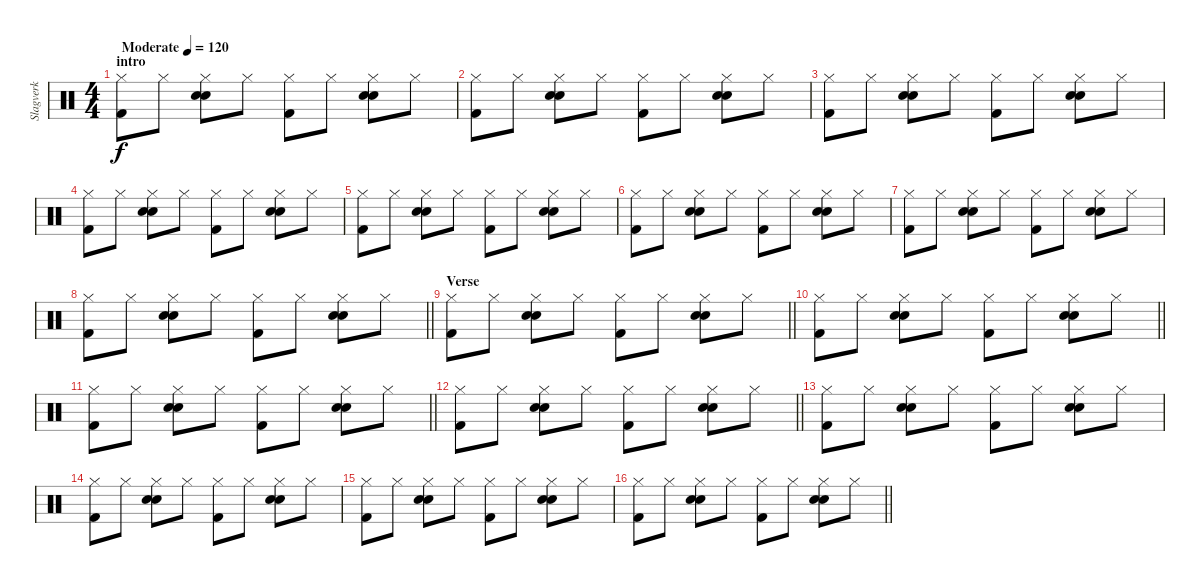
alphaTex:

\track ("Slagverk" "Slagverk") {instrument percussion}
\staff {score}
\articulation defaults
\ts (4 4)
\section ("" "intro")
\tempo (120 "Moderate")
\clef neutral
\ks c
("Hi-Hat (closed)" "Kick (hit) 2").8{dy f} "Hi-Hat (closed)".8 ("Hi-Hat (closed)" "Hand Clap (hit)" "Snare (hit) 2").8 "Hi-Hat (closed)".8 ("Hi-Hat (closed)" "Kick (hit) 2").8 "Hi-Hat (closed)".8 ("Hi-Hat (closed)" "Hand Clap (hit)" "Snare (hit) 2").8 "Hi-Hat (closed)".8 |
("Hi-Hat (closed)" "Kick (hit) 2").8 "Hi-Hat (closed)".8 ("Hi-Hat (closed)" "Hand Clap (hit)" "Snare (hit) 2").8 "Hi-Hat (closed)".8 ("Hi-Hat (closed)" "Kick (hit) 2").8 "Hi-Hat (closed)".8 ("Hi-Hat (closed)" "Hand Clap (hit)" "Snare (hit) 2").8 "Hi-Hat (closed)".8 |
("Hi-Hat (closed)" "Kick (hit) 2").8 "Hi-Hat (closed)".8 ("Hi-Hat (closed)" "Hand Clap (hit)" "Snare (hit) 2").8 "Hi-Hat (closed)".8 ("Hi-Hat (closed)" "Kick (hit) 2").8 "Hi-Hat (closed)".8 ("Hi-Hat (closed)" "Hand Clap (hit)" "Snare (hit) 2").8 "Hi-Hat (closed)".8 |
("Hi-Hat (closed)" "Kick (hit) 2").8 "Hi-Hat (closed)".8 ("Hi-Hat (closed)" "Hand Clap (hit)" "Snare (hit) 2").8 "Hi-Hat (closed)".8 ("Hi-Hat (closed)" "Kick (hit) 2").8 "Hi-Hat (closed)".8 ("Hi-Hat (closed)" "Hand Clap (hit)" "Snare (hit) 2").8 "Hi-Hat (closed)".8 |
("Hi-Hat (closed)" "Kick (hit) 2").8 "Hi-Hat (closed)".8 ("Hi-Hat (closed)" "Hand Clap (hit)" "Snare (hit) 2").8 "Hi-Hat (closed)".8 ("Hi-Hat (closed)" "Kick (hit) 2").8 "Hi-Hat (closed)".8 ("Hi-Hat (closed)" "Hand Clap (hit)" "Snare (hit) 2").8 "Hi-Hat (closed)".8 |
("Hi-Hat (closed)" "Kick (hit) 2").8 "Hi-Hat (closed)".8 ("Hi-Hat (closed)" "Hand Clap (hit)" "Snare (hit) 2").8 "Hi-Hat (closed)".8 ("Hi-Hat (closed)" "Kick (hit) 2").8 "Hi-Hat (closed)".8 ("Hi-Hat (closed)" "Hand Clap (hit)" "Snare (hit) 2").8 "Hi-Hat (closed)".8 |
("Hi-Hat (closed)" "Kick (hit) 2").8 "Hi-Hat (closed)".8 ("Hi-Hat (closed)" "Hand Clap (hit)" "Snare (hit) 2").8 "Hi-Hat (closed)".8 ("Hi-Hat (closed)" "Kick (hit) 2").8 "Hi-Hat (closed)".8 ("Hi-Hat (closed)" "Hand Clap (hit)" "Snare (hit) 2").8 "Hi-Hat (closed)".8 |
\barLineRight lightlight
("Hi-Hat (closed)" "Kick (hit) 2").8 "Hi-Hat (closed)".8 ("Hi-Hat (closed)" "Hand Clap (hit)" "Snare (hit) 2").8 "Hi-Hat (closed)".8 ("Hi-Hat (closed)" "Kick (hit) 2").8 "Hi-Hat (closed)".8 ("Hi-Hat (closed)" "Hand Clap (hit)" "Snare (hit) 2").8 "Hi-Hat (closed)".8 |
\section ("" "Verse")
\barLineRight lightlight
("Hi-Hat (closed)" "Kick (hit) 2").8 "Hi-Hat (closed)".8 ("Hi-Hat (closed)" "Hand Clap (hit)" "Snare (hit) 2").8 "Hi-Hat (closed)".8 ("Hi-Hat (closed)" "Kick (hit) 2").8 "Hi-Hat (closed)".8 ("Hi-Hat (closed)" "Hand Clap (hit)" "Snare (hit) 2").8 "Hi-Hat (closed)".8 |
\barLineRight lightlight
("Hi-Hat (closed)" "Kick (hit) 2").8 "Hi-Hat (closed)".8 ("Hi-Hat (closed)" "Hand Clap (hit)" "Snare (hit) 2").8 "Hi-Hat (closed)".8 ("Hi-Hat (closed)" "Kick (hit) 2").8 "Hi-Hat (closed)".8 ("Hi-Hat (closed)" "Hand Clap (hit)" "Snare (hit) 2").8 "Hi-Hat (closed)".8 |
\barLineRight lightlight
("Hi-Hat (closed)" "Kick (hit) 2").8 "Hi-Hat (closed)".8 ("Hi-Hat (closed)" "Hand Clap (hit)" "Snare (hit) 2").8 "Hi-Hat (closed)".8 ("Hi-Hat (closed)" "Kick (hit) 2").8 "Hi-Hat (closed)".8 ("Hi-Hat (closed)" "Hand Clap (hit)" "Snare (hit) 2").8 "Hi-Hat (closed)".8 |
\barLineRight lightlight
("Hi-Hat (closed)" "Kick (hit) 2").8 "Hi-Hat (closed)".8 ("Hi-Hat (closed)" "Hand Clap (hit)" "Snare (hit) 2").8 "Hi-Hat (closed)".8 ("Hi-Hat (closed)" "Kick (hit) 2").8 "Hi-Hat (closed)".8 ("Hi-Hat (closed)" "Hand Clap (hit)" "Snare (hit) 2").8 "Hi-Hat (closed)".8 |
("Hi-Hat (closed)" "Kick (hit) 2").8 "Hi-Hat (closed)".8 ("Hi-Hat (closed)" "Hand Clap (hit)" "Snare (hit) 2").8 "Hi-Hat (closed)".8 ("Hi-Hat (closed)" "Kick (hit) 2").8 "Hi-Hat (closed)".8 ("Hi-Hat (closed)" "Hand Clap (hit)" "Snare (hit) 2").8 "Hi-Hat (closed)".8 |
("Hi-Hat (closed)" "Kick (hit) 2").8 "Hi-Hat (closed)".8 ("Hi-Hat (closed)" "Hand Clap (hit)" "Snare (hit) 2").8 "Hi-Hat (closed)".8 ("Hi-Hat (closed)" "Kick (hit) 2").8 "Hi-Hat (closed)".8 ("Hi-Hat (closed)" "Hand Clap (hit)" "Snare (hit) 2").8 "Hi-Hat (closed)".8 |
("Hi-Hat (closed)" "Kick (hit) 2").8 "Hi-Hat (closed)".8 ("Hi-Hat (closed)" "Hand Clap (hit)" "Snare (hit) 2").8 "Hi-Hat (closed)".8 ("Hi-Hat (closed)" "Kick (hit) 2").8 "Hi-Hat (closed)".8 ("Hi-Hat (closed)" "Hand Clap (hit)" "Snare (hit) 2").8 "Hi-Hat (closed)".8 |
\barLineRight lightlight
("Hi-Hat (closed)" "Kick (hit) 2").8 "Hi-Hat (closed)".8 ("Hi-Hat (closed)" "Hand Clap (hit)" "Snare (hit) 2").8 "Hi-Hat (closed)".8 ("Hi-Hat (closed)" "Kick (hit) 2").8 "Hi-Hat (closed)".8 ("Hi-Hat (closed)" "Hand Clap (hit)" "Snare (hit) 2").8 "Hi-Hat (closed)".8
